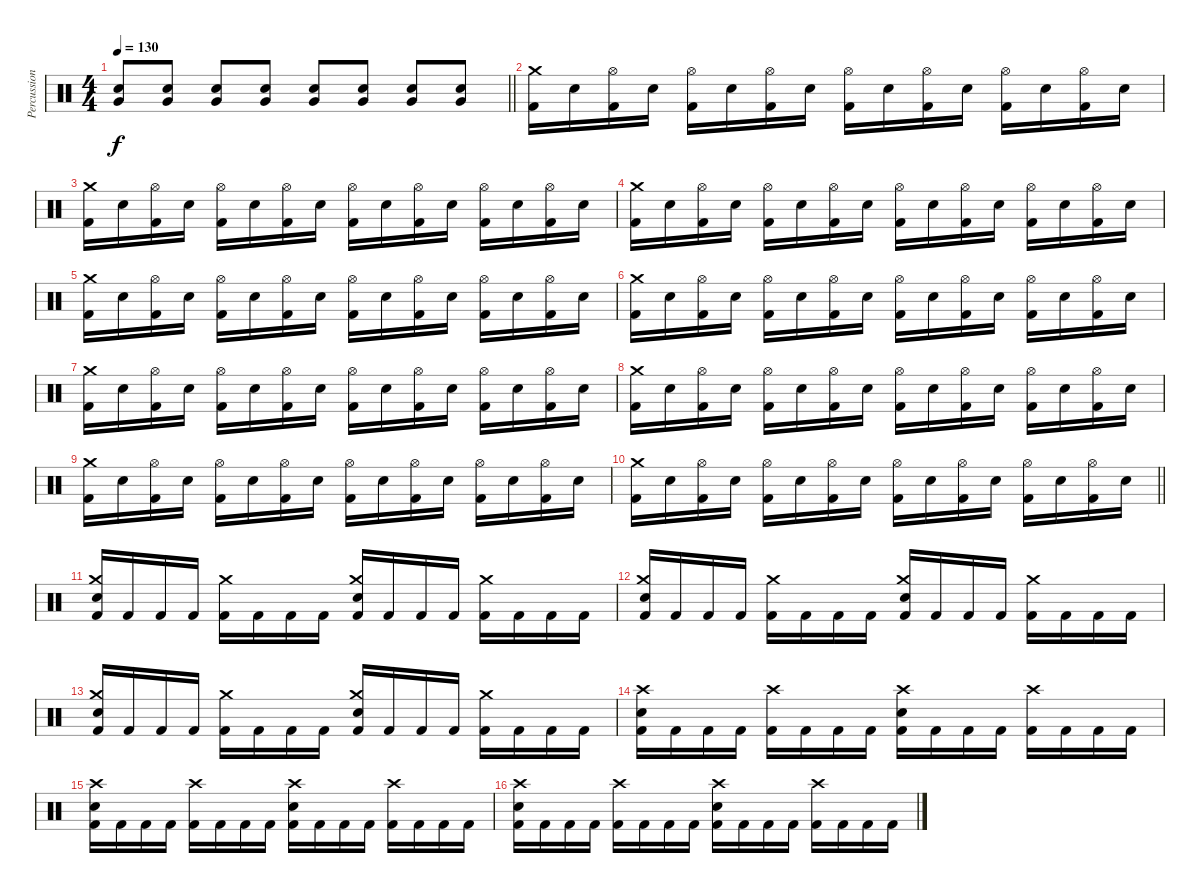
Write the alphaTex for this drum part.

\track ("Percussion" "Percussion") {instrument percussion}
\staff {score}
\articulation defaults
\ts (4 4)
\tempo 130
\clef neutral
\barLineRight lightlight
\ks c
("Snare (hit) 2" "Very Low Tom (hit)").8{dy f} ("Snare (hit) 2" "Very Low Tom (hit)").8 ("Snare (hit) 2" "Very Low Tom (hit)").8 ("Snare (hit) 2" "Very Low Tom (hit)").8 ("Snare (hit) 2" "Very Low Tom (hit)").8 ("Snare (hit) 2" "Very Low Tom (hit)").8 ("Snare (hit) 2" "Very Low Tom (hit)").8 ("Snare (hit) 2" "Very Low Tom (hit)").8 |
\section ("" "")
("Crash medium (hit)" "Kick (hit) 2").16 "Snare (hit) 2".16 ("Hi-Hat (open)" "Kick (hit) 2").16 "Snare (hit) 2".16 ("Hi-Hat (open)" "Kick (hit) 2").16 "Snare (hit) 2".16 ("Hi-Hat (open)" "Kick (hit) 2").16 "Snare (hit) 2".16 ("Hi-Hat (open)" "Kick (hit) 2").16 "Snare (hit) 2".16 ("Hi-Hat (open)" "Kick (hit) 2").16 "Snare (hit) 2".16 ("Hi-Hat (open)" "Kick (hit) 2").16 "Snare (hit) 2".16 ("Hi-Hat (open)" "Kick (hit) 2").16 "Snare (hit) 2".16 |
("Crash medium (hit)" "Kick (hit) 2").16 "Snare (hit) 2".16 ("Hi-Hat (open)" "Kick (hit) 2").16 "Snare (hit) 2".16 ("Hi-Hat (open)" "Kick (hit) 2").16 "Snare (hit) 2".16 ("Hi-Hat (open)" "Kick (hit) 2").16 "Snare (hit) 2".16 ("Hi-Hat (open)" "Kick (hit) 2").16 "Snare (hit) 2".16 ("Hi-Hat (open)" "Kick (hit) 2").16 "Snare (hit) 2".16 ("Hi-Hat (open)" "Kick (hit) 2").16 "Snare (hit) 2".16 ("Hi-Hat (open)" "Kick (hit) 2").16 "Snare (hit) 2".16 |
("Crash medium (hit)" "Kick (hit) 2").16 "Snare (hit) 2".16 ("Hi-Hat (open)" "Kick (hit) 2").16 "Snare (hit) 2".16 ("Hi-Hat (open)" "Kick (hit) 2").16 "Snare (hit) 2".16 ("Hi-Hat (open)" "Kick (hit) 2").16 "Snare (hit) 2".16 ("Hi-Hat (open)" "Kick (hit) 2").16 "Snare (hit) 2".16 ("Hi-Hat (open)" "Kick (hit) 2").16 "Snare (hit) 2".16 ("Hi-Hat (open)" "Kick (hit) 2").16 "Snare (hit) 2".16 ("Hi-Hat (open)" "Kick (hit) 2").16 "Snare (hit) 2".16 |
("Crash medium (hit)" "Kick (hit) 2").16 "Snare (hit) 2".16 ("Hi-Hat (open)" "Kick (hit) 2").16 "Snare (hit) 2".16 ("Hi-Hat (open)" "Kick (hit) 2").16 "Snare (hit) 2".16 ("Hi-Hat (open)" "Kick (hit) 2").16 "Snare (hit) 2".16 ("Hi-Hat (open)" "Kick (hit) 2").16 "Snare (hit) 2".16 ("Hi-Hat (open)" "Kick (hit) 2").16 "Snare (hit) 2".16 ("Hi-Hat (open)" "Kick (hit) 2").16 "Snare (hit) 2".16 ("Hi-Hat (open)" "Kick (hit) 2").16 "Snare (hit) 2".16 |
("Crash medium (hit)" "Kick (hit) 2").16 "Snare (hit) 2".16 ("Hi-Hat (open)" "Kick (hit) 2").16 "Snare (hit) 2".16 ("Hi-Hat (open)" "Kick (hit) 2").16 "Snare (hit) 2".16 ("Hi-Hat (open)" "Kick (hit) 2").16 "Snare (hit) 2".16 ("Hi-Hat (open)" "Kick (hit) 2").16 "Snare (hit) 2".16 ("Hi-Hat (open)" "Kick (hit) 2").16 "Snare (hit) 2".16 ("Hi-Hat (open)" "Kick (hit) 2").16 "Snare (hit) 2".16 ("Hi-Hat (open)" "Kick (hit) 2").16 "Snare (hit) 2".16 |
("Crash medium (hit)" "Kick (hit) 2").16 "Snare (hit) 2".16 ("Hi-Hat (open)" "Kick (hit) 2").16 "Snare (hit) 2".16 ("Hi-Hat (open)" "Kick (hit) 2").16 "Snare (hit) 2".16 ("Hi-Hat (open)" "Kick (hit) 2").16 "Snare (hit) 2".16 ("Hi-Hat (open)" "Kick (hit) 2").16 "Snare (hit) 2".16 ("Hi-Hat (open)" "Kick (hit) 2").16 "Snare (hit) 2".16 ("Hi-Hat (open)" "Kick (hit) 2").16 "Snare (hit) 2".16 ("Hi-Hat (open)" "Kick (hit) 2").16 "Snare (hit) 2".16 |
("Crash medium (hit)" "Kick (hit) 2").16 "Snare (hit) 2".16 ("Hi-Hat (open)" "Kick (hit) 2").16 "Snare (hit) 2".16 ("Hi-Hat (open)" "Kick (hit) 2").16 "Snare (hit) 2".16 ("Hi-Hat (open)" "Kick (hit) 2").16 "Snare (hit) 2".16 ("Hi-Hat (open)" "Kick (hit) 2").16 "Snare (hit) 2".16 ("Hi-Hat (open)" "Kick (hit) 2").16 "Snare (hit) 2".16 ("Hi-Hat (open)" "Kick (hit) 2").16 "Snare (hit) 2".16 ("Hi-Hat (open)" "Kick (hit) 2").16 "Snare (hit) 2".16 |
("Crash medium (hit)" "Kick (hit) 2").16 "Snare (hit) 2".16 ("Hi-Hat (open)" "Kick (hit) 2").16 "Snare (hit) 2".16 ("Hi-Hat (open)" "Kick (hit) 2").16 "Snare (hit) 2".16 ("Hi-Hat (open)" "Kick (hit) 2").16 "Snare (hit) 2".16 ("Hi-Hat (open)" "Kick (hit) 2").16 "Snare (hit) 2".16 ("Hi-Hat (open)" "Kick (hit) 2").16 "Snare (hit) 2".16 ("Hi-Hat (open)" "Kick (hit) 2").16 "Snare (hit) 2".16 ("Hi-Hat (open)" "Kick (hit) 2").16 "Snare (hit) 2".16 |
\barLineRight lightlight
("Crash medium (hit)" "Kick (hit) 2").16 "Snare (hit) 2".16 ("Hi-Hat (open)" "Kick (hit) 2").16 "Snare (hit) 2".16 ("Hi-Hat (open)" "Kick (hit) 2").16 "Snare (hit) 2".16 ("Hi-Hat (open)" "Kick (hit) 2").16 "Snare (hit) 2".16 ("Hi-Hat (open)" "Kick (hit) 2").16 "Snare (hit) 2".16 ("Hi-Hat (open)" "Kick (hit) 2").16 "Snare (hit) 2".16 ("Hi-Hat (open)" "Kick (hit) 2").16 "Snare (hit) 2".16 ("Hi-Hat (open)" "Kick (hit) 2").16 "Snare (hit) 2".16 |
\section ("" "")
("Crash medium (hit)" "Snare (hit) 2" "Kick (hit) 2").16 "Kick (hit) 2".16 "Kick (hit) 2".16 "Kick (hit) 2".16 ("Crash medium (hit)" "Kick (hit) 2").16 "Kick (hit) 2".16 "Kick (hit) 2".16 "Kick (hit) 2".16 ("Crash medium (hit)" "Snare (hit) 2" "Kick (hit) 2").16 "Kick (hit) 2".16 "Kick (hit) 2".16 "Kick (hit) 2".16 ("Crash medium (hit)" "Kick (hit) 2").16 "Kick (hit) 2".16 "Kick (hit) 2".16 "Kick (hit) 2".16 |
("Crash medium (hit)" "Snare (hit) 2" "Kick (hit) 2").16 "Kick (hit) 2".16 "Kick (hit) 2".16 "Kick (hit) 2".16 ("Crash medium (hit)" "Kick (hit) 2").16 "Kick (hit) 2".16 "Kick (hit) 2".16 "Kick (hit) 2".16 ("Crash medium (hit)" "Snare (hit) 2" "Kick (hit) 2").16 "Kick (hit) 2".16 "Kick (hit) 2".16 "Kick (hit) 2".16 ("Crash medium (hit)" "Kick (hit) 2").16 "Kick (hit) 2".16 "Kick (hit) 2".16 "Kick (hit) 2".16 |
("Crash medium (hit)" "Snare (hit) 2" "Kick (hit) 2").16 "Kick (hit) 2".16 "Kick (hit) 2".16 "Kick (hit) 2".16 ("Crash medium (hit)" "Kick (hit) 2").16 "Kick (hit) 2".16 "Kick (hit) 2".16 "Kick (hit) 2".16 ("Crash medium (hit)" "Snare (hit) 2" "Kick (hit) 2").16 "Kick (hit) 2".16 "Kick (hit) 2".16 "Kick (hit) 2".16 ("Crash medium (hit)" "Kick (hit) 2").16 "Kick (hit) 2".16 "Kick (hit) 2".16 "Kick (hit) 2".16 |
("Crash high (hit)" "Snare (hit) 2" "Kick (hit) 2").16 "Kick (hit) 2".16 "Kick (hit) 2".16 "Kick (hit) 2".16 ("Crash high (hit)" "Kick (hit) 2").16 "Kick (hit) 2".16 "Kick (hit) 2".16 "Kick (hit) 2".16 ("Crash high (hit)" "Snare (hit) 2" "Kick (hit) 2").16 "Kick (hit) 2".16 "Kick (hit) 2".16 "Kick (hit) 2".16 ("Crash high (hit)" "Kick (hit) 2").16 "Kick (hit) 2".16 "Kick (hit) 2".16 "Kick (hit) 2".16 |
("Crash high (hit)" "Snare (hit) 2" "Kick (hit) 2").16 "Kick (hit) 2".16 "Kick (hit) 2".16 "Kick (hit) 2".16 ("Crash high (hit)" "Kick (hit) 2").16 "Kick (hit) 2".16 "Kick (hit) 2".16 "Kick (hit) 2".16 ("Crash high (hit)" "Snare (hit) 2" "Kick (hit) 2").16 "Kick (hit) 2".16 "Kick (hit) 2".16 "Kick (hit) 2".16 ("Crash high (hit)" "Kick (hit) 2").16 "Kick (hit) 2".16 "Kick (hit) 2".16 "Kick (hit) 2".16 |
("Crash high (hit)" "Snare (hit) 2" "Kick (hit) 2").16 "Kick (hit) 2".16 "Kick (hit) 2".16 "Kick (hit) 2".16 ("Crash high (hit)" "Kick (hit) 2").16 "Kick (hit) 2".16 "Kick (hit) 2".16 "Kick (hit) 2".16 ("Crash high (hit)" "Snare (hit) 2" "Kick (hit) 2").16 "Kick (hit) 2".16 "Kick (hit) 2".16 "Kick (hit) 2".16 ("Crash high (hit)" "Kick (hit) 2").16 "Kick (hit) 2".16 "Kick (hit) 2".16 "Kick (hit) 2".16
